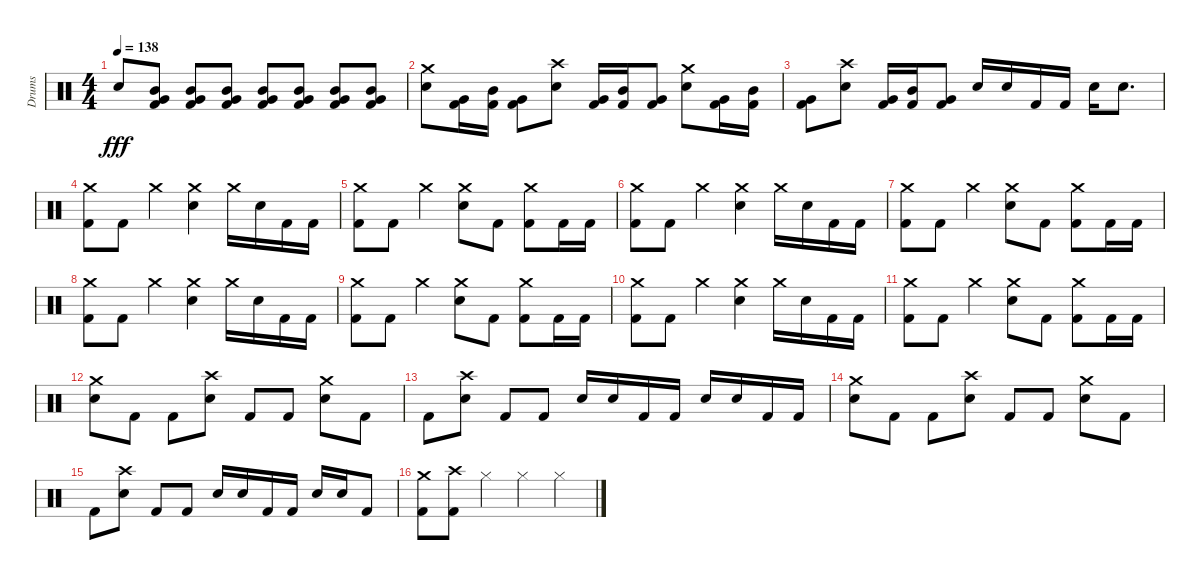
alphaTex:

\track ("Drums" "Drums") {instrument percussion}
\staff {score}
\articulation defaults
\ts (4 4)
\tempo 138
\clef neutral
\ks c "Electric Snare (hit)".8{dy fff}
("Very Low Tom (hit)" "Mid Tom (hit)" "Kick (hit) 2").8 ("Very Low Tom (hit)" "Mid Tom (hit)" "Kick (hit) 2").8 ("Very Low Tom (hit)" "Mid Tom (hit)" "Kick (hit) 2").8 ("Very Low Tom (hit)" "Mid Tom (hit)" "Kick (hit) 2").8 ("Very Low Tom (hit)" "Mid Tom (hit)" "Kick (hit) 2").8 ("Very Low Tom (hit)" "Mid Tom (hit)" "Kick (hit) 2").8 ("Very Low Tom (hit)" "Mid Tom (hit)" "Kick (hit) 2").8 |
("Crash medium (hit)" "Electric Snare (hit)").8 ("Very Low Tom (hit)" "Kick (hit) 2").16 ("Mid Tom (hit)" "Kick (hit) 2").16 ("Very Low Tom (hit)" "Kick (hit) 2").8 ("Crash high (hit)" "Electric Snare (hit)").8 ("Very Low Tom (hit)" "Kick (hit) 2").16 ("Mid Tom (hit)" "Kick (hit) 2").16 ("Very Low Tom (hit)" "Kick (hit) 2").8 ("Crash medium (hit)" "Electric Snare (hit)").8 ("Very Low Tom (hit)" "Kick (hit) 2").16 ("Mid Tom (hit)" "Kick (hit) 2").16 |
("Very Low Tom (hit)" "Kick (hit) 2").8 ("Crash high (hit)" "Electric Snare (hit)").8 ("Very Low Tom (hit)" "Kick (hit) 2").16 ("Mid Tom (hit)" "Kick (hit) 2").16 ("Very Low Tom (hit)" "Kick (hit) 2").8 "Electric Snare (hit)".16 "Electric Snare (hit)".16 "Kick (hit) 2".16 "Kick (hit) 2".16 "Electric Snare (hit)".16 "Electric Snare (hit)".8{d} |
("Crash medium (hit)" "Kick (hit) 2").8 "Kick (hit) 2".8 "Crash medium (hit)".4 ("Crash medium (hit)" "Electric Snare (hit)").4 "Crash medium (hit)".16 "Electric Snare (hit)".16 "Kick (hit) 2".16 "Kick (hit) 2".16 |
("Crash medium (hit)" "Kick (hit) 2").8 "Kick (hit) 2".8 "Crash medium (hit)".4 ("Crash medium (hit)" "Electric Snare (hit)").8 "Kick (hit) 2".8 ("Crash medium (hit)" "Kick (hit) 2").8 "Kick (hit) 2".16 "Kick (hit) 2".16 |
("Crash medium (hit)" "Kick (hit) 2").8 "Kick (hit) 2".8 "Crash medium (hit)".4 ("Crash medium (hit)" "Electric Snare (hit)").4 "Crash medium (hit)".16 "Electric Snare (hit)".16 "Kick (hit) 2".16 "Kick (hit) 2".16 |
("Crash medium (hit)" "Kick (hit) 2").8 "Kick (hit) 2".8 "Crash medium (hit)".4 ("Crash medium (hit)" "Electric Snare (hit)").8 "Kick (hit) 2".8 ("Crash medium (hit)" "Kick (hit) 2").8 "Kick (hit) 2".16 "Kick (hit) 2".16 |
("Crash medium (hit)" "Kick (hit) 2").8 "Kick (hit) 2".8 "Crash medium (hit)".4 ("Crash medium (hit)" "Electric Snare (hit)").4 "Crash medium (hit)".16 "Electric Snare (hit)".16 "Kick (hit) 2".16 "Kick (hit) 2".16 |
("Crash medium (hit)" "Kick (hit) 2").8 "Kick (hit) 2".8 "Crash medium (hit)".4 ("Crash medium (hit)" "Electric Snare (hit)").8 "Kick (hit) 2".8 ("Crash medium (hit)" "Kick (hit) 2").8 "Kick (hit) 2".16 "Kick (hit) 2".16 |
("Crash medium (hit)" "Kick (hit) 2").8 "Kick (hit) 2".8 "Crash medium (hit)".4 ("Crash medium (hit)" "Electric Snare (hit)").4 "Crash medium (hit)".16 "Electric Snare (hit)".16 "Kick (hit) 2".16 "Kick (hit) 2".16 |
("Crash medium (hit)" "Kick (hit) 2").8 "Kick (hit) 2".8 "Crash medium (hit)".4 ("Crash medium (hit)" "Electric Snare (hit)").8 "Kick (hit) 2".8 ("Crash medium (hit)" "Kick (hit) 2").8 "Kick (hit) 2".16 "Kick (hit) 2".16 |
("Crash medium (hit)" "Electric Snare (hit)").8 "Kick (hit) 2".8 "Kick (hit) 2".8 ("Crash high (hit)" "Electric Snare (hit)").8 "Kick (hit) 2".8 "Kick (hit) 2".8 ("Crash medium (hit)" "Electric Snare (hit)").8 "Kick (hit) 2".8 |
"Kick (hit) 2".8 ("Crash high (hit)" "Electric Snare (hit)").8 "Kick (hit) 2".8 "Kick (hit) 2".8 "Electric Snare (hit)".16 "Electric Snare (hit)".16 "Kick (hit) 2".16 "Kick (hit) 2".16 "Electric Snare (hit)".16 "Electric Snare (hit)".16 "Kick (hit) 2".16 "Kick (hit) 2".16 |
("Crash medium (hit)" "Electric Snare (hit)").8 "Kick (hit) 2".8 "Kick (hit) 2".8 ("Crash high (hit)" "Electric Snare (hit)").8 "Kick (hit) 2".8 "Kick (hit) 2".8 ("Crash medium (hit)" "Electric Snare (hit)").8 "Kick (hit) 2".8 |
"Kick (hit) 2".8 ("Crash high (hit)" "Electric Snare (hit)").8 "Kick (hit) 2".8 "Kick (hit) 2".8 "Electric Snare (hit)".16 "Electric Snare (hit)".16 "Kick (hit) 2".16 "Kick (hit) 2".16 "Electric Snare (hit)".16 "Electric Snare (hit)".16 "Kick (hit) 2".8 |
("Crash medium (hit)" "Kick (hit) 2").8 ("Crash high (hit)" "Kick (hit) 2").8 "Hi-Hat (closed)".4 "Hi-Hat (closed)".4 "Hi-Hat (closed)".4
